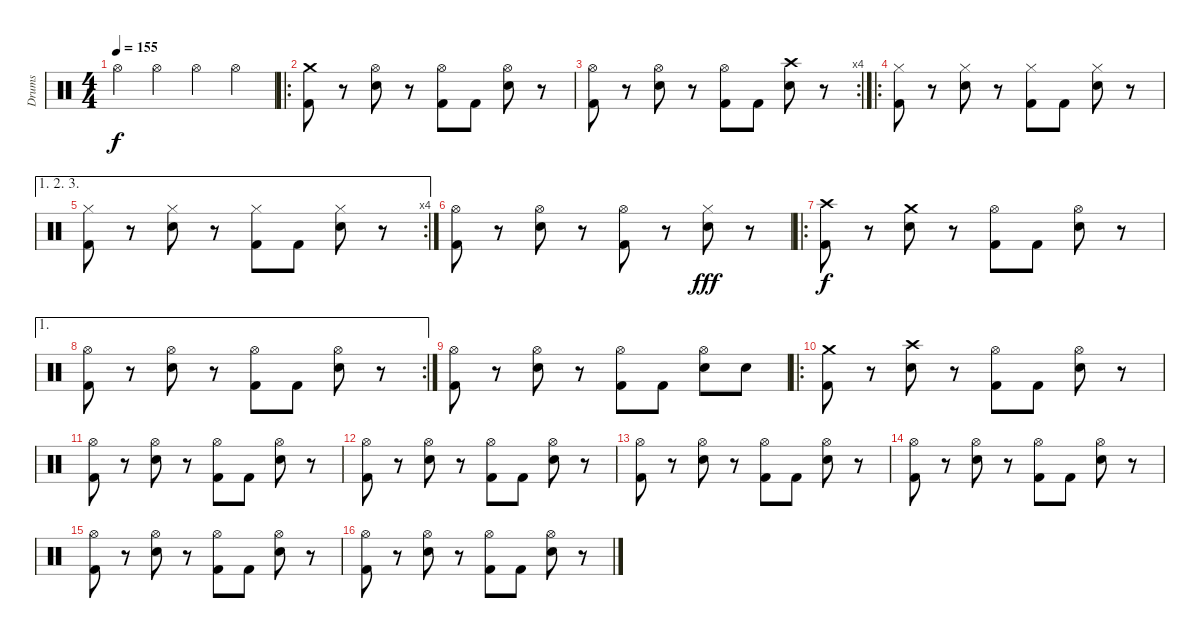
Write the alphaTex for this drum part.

\track ("Drums" "Drums") {instrument percussion}
\staff {score}
\articulation defaults
\ts (4 4)
\tempo 155
\clef neutral
\ks c "Hi-Hat (open)".4{dy f} "Hi-Hat (open)".4 "Hi-Hat (open)".4 "Hi-Hat (open)".4
|
\ro
("Crash medium (hit)" "Kick (hit) 2").8 r.8 ("Hi-Hat (open)" "Snare (hit) 2").8 r.8 ("Hi-Hat (open)" "Kick (hit) 2").8 "Kick (hit) 2".8 ("Hi-Hat (open)" "Snare (hit) 2").8 r.8 |
\rc 4
("Hi-Hat (open)" "Kick (hit) 2").8 r.8 ("Hi-Hat (open)" "Snare (hit) 2").8 r.8 ("Hi-Hat (open)" "Kick (hit) 2").8 "Kick (hit) 2".8 ("Crash high (hit)" "Snare (hit) 2").8 r.8 |
\ro
("Hi-Hat (closed)" "Kick (hit) 2").8 r.8 ("Hi-Hat (closed)" "Snare (hit) 2").8 r.8 ("Hi-Hat (closed)" "Kick (hit) 2").8 "Kick (hit) 2".8 ("Hi-Hat (closed)" "Snare (hit) 2").8 r.8 |
\ae (1 2 3)
\rc 4
("Hi-Hat (closed)" "Kick (hit) 2").8 r.8 ("Hi-Hat (closed)" "Snare (hit) 2").8 r.8 ("Hi-Hat (closed)" "Kick (hit) 2").8 "Kick (hit) 2".8 ("Hi-Hat (closed)" "Snare (hit) 2").8 r.8 |
("Hi-Hat (open)" "Kick (hit) 2").8 r.8 ("Hi-Hat (open)" "Snare (hit) 2").8 r.8 ("Hi-Hat (open)" "Kick (hit) 2").8 r.8 ("Hi-Hat (closed)" "Snare (hit) 2").8{dy fff} r.8 |
\ro
("Crash high (hit)" "Kick (hit) 2").8{dy f} r.8 ("Crash medium (hit)" "Snare (hit) 2").8 r.8 ("Hi-Hat (open)" "Kick (hit) 2").8 "Kick (hit) 2".8 ("Hi-Hat (open)" "Snare (hit) 2").8 r.8 |
\ae 1
\rc 2
("Hi-Hat (open)" "Kick (hit) 2").8 r.8 ("Hi-Hat (open)" "Snare (hit) 2").8 r.8 ("Hi-Hat (open)" "Kick (hit) 2").8 "Kick (hit) 2".8 ("Hi-Hat (open)" "Snare (hit) 2").8 r.8 |
("Hi-Hat (open)" "Kick (hit) 2").8 r.8 ("Hi-Hat (open)" "Snare (hit) 2").8 r.8 ("Hi-Hat (open)" "Kick (hit) 2").8 "Kick (hit) 2".8 ("Hi-Hat (open)" "Snare (hit) 2").8 "Snare (hit) 2".8 |
\ro
("Crash medium (hit)" "Kick (hit) 2").8 r.8 ("Crash high (hit)" "Snare (hit) 2").8 r.8 ("Hi-Hat (open)" "Kick (hit) 2").8 "Kick (hit) 2".8 ("Hi-Hat (open)" "Snare (hit) 2").8 r.8 |
("Hi-Hat (open)" "Kick (hit) 2").8 r.8 ("Hi-Hat (open)" "Snare (hit) 2").8 r.8 ("Hi-Hat (open)" "Kick (hit) 2").8 "Kick (hit) 2".8 ("Hi-Hat (open)" "Snare (hit) 2").8 r.8 |
("Hi-Hat (open)" "Kick (hit) 2").8 r.8 ("Hi-Hat (open)" "Snare (hit) 2").8 r.8 ("Hi-Hat (open)" "Kick (hit) 2").8 "Kick (hit) 2".8 ("Hi-Hat (open)" "Snare (hit) 2").8 r.8 |
("Hi-Hat (open)" "Kick (hit) 2").8 r.8 ("Hi-Hat (open)" "Snare (hit) 2").8 r.8 ("Hi-Hat (open)" "Kick (hit) 2").8 "Kick (hit) 2".8 ("Hi-Hat (open)" "Snare (hit) 2").8 r.8 |
("Hi-Hat (open)" "Kick (hit) 2").8 r.8 ("Hi-Hat (open)" "Snare (hit) 2").8 r.8 ("Hi-Hat (open)" "Kick (hit) 2").8 "Kick (hit) 2".8 ("Hi-Hat (open)" "Snare (hit) 2").8 r.8 |
("Hi-Hat (open)" "Kick (hit) 2").8 r.8 ("Hi-Hat (open)" "Snare (hit) 2").8 r.8 ("Hi-Hat (open)" "Kick (hit) 2").8 "Kick (hit) 2".8 ("Hi-Hat (open)" "Snare (hit) 2").8 r.8 |
("Hi-Hat (open)" "Kick (hit) 2").8 r.8 ("Hi-Hat (open)" "Snare (hit) 2").8 r.8 ("Hi-Hat (open)" "Kick (hit) 2").8 "Kick (hit) 2".8 ("Hi-Hat (open)" "Snare (hit) 2").8 r.8
